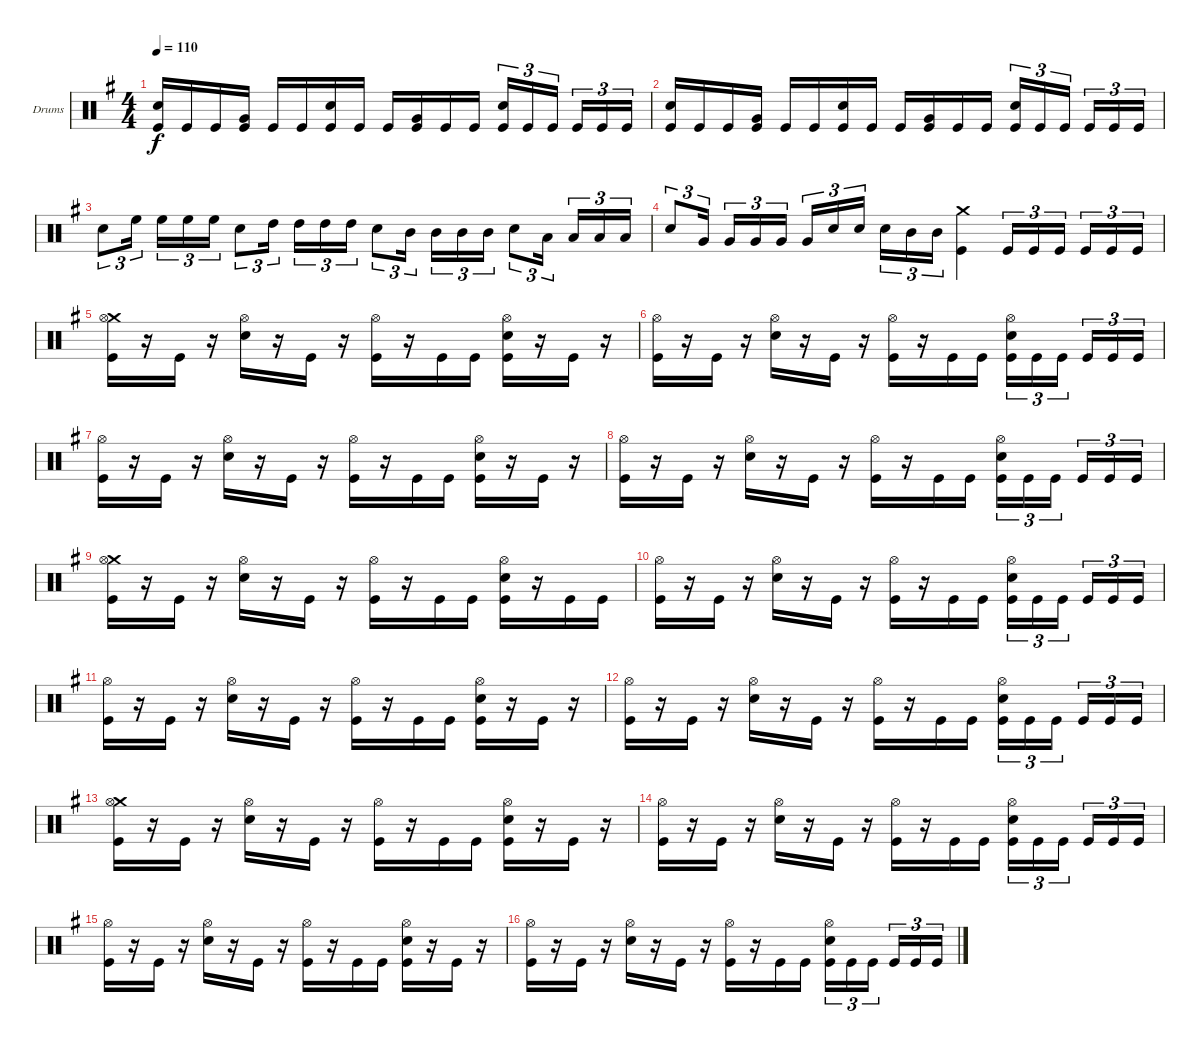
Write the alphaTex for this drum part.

\bracketExtendMode groupsimilarinstruments
\firstSystemTrackNameOrientation horizontal
\otherSystemsTrackNameOrientation horizontal
\track ("Drumkit" "Drums") {instrument percussion}
\staff {score}
\articulation defaults
\ts (4 4)
\tempo 110
\clef neutral
\ks g
("Snare (hit) 2" "Kick (hit)").16{dy f} "Kick (hit)".16 "Kick (hit)".16 ("Very Low Tom (hit)" "Kick (hit)").16 "Kick (hit)".16 "Kick (hit)".16 ("Snare (hit) 2" "Kick (hit)").16 "Kick (hit)".16 "Kick (hit)".16 ("Very Low Tom (hit)" "Kick (hit)").16 "Kick (hit)".16 "Kick (hit)".16 ("Snare (hit) 2" "Kick (hit)").16{tu (3 2)} "Kick (hit)".16{tu (3 2)} "Kick (hit)".16{tu (3 2)} "Kick (hit)".16{tu (3 2)} "Kick (hit)".16{tu (3 2)} "Kick (hit)".16{tu (3 2)} |
("Snare (hit) 2" "Kick (hit)").16 "Kick (hit)".16 "Kick (hit)".16 ("Very Low Tom (hit)" "Kick (hit)").16 "Kick (hit)".16 "Kick (hit)".16 ("Snare (hit) 2" "Kick (hit)").16 "Kick (hit)".16 "Kick (hit)".16 ("Very Low Tom (hit)" "Kick (hit)").16 "Kick (hit)".16 "Kick (hit)".16 ("Snare (hit) 2" "Kick (hit)").16{tu (3 2)} "Kick (hit)".16{tu (3 2)} "Kick (hit)".16{tu (3 2)} "Kick (hit)".16{tu (3 2)} "Kick (hit)".16{tu (3 2)} "Kick (hit)".16{tu (3 2)} |
"Snare (hit) 2".8{tu (3 2)} "High Floor Tom (hit)".16{tu (3 2)} "High Floor Tom (hit)".16{tu (3 2)} "High Floor Tom (hit)".16{tu (3 2)} "High Floor Tom (hit)".16{tu (3 2)} "Snare (hit) 2".8{tu (3 2)} "High Tom (hit)".16{tu (3 2)} "High Tom (hit)".16{tu (3 2)} "High Tom (hit)".16{tu (3 2)} "High Tom (hit)".16{tu (3 2)} "Snare (hit) 2".8{tu (3 2)} "Mid Tom (hit)".16{tu (3 2)} "Mid Tom (hit)".16{tu (3 2)} "Mid Tom (hit)".16{tu (3 2)} "Mid Tom (hit)".16{tu (3 2)} "Snare (hit) 2".8{tu (3 2)} "Low Tom (hit)".16{tu (3 2)} "Low Tom (hit)".16{tu (3 2)} "Low Tom (hit)".16{tu (3 2)} "Low Tom (hit)".16{tu (3 2)} |
"Snare (hit) 2".8{tu (3 2)} "Very Low Tom (hit)".16{tu (3 2)} "Very Low Tom (hit)".16{tu (3 2)} "Very Low Tom (hit)".16{tu (3 2)} "Very Low Tom (hit)".16{tu (3 2)} "Very Low Tom (hit)".16{tu (3 2)} "Snare (hit) 2".16{tu (3 2)} "Snare (hit) 2".16{tu (3 2)} "Snare (hit) 2".16{tu (3 2)} "Mid Tom (hit)".16{tu (3 2)} "Mid Tom (hit)".16{tu (3 2)} ("Crash medium (hit)" "Kick (hit)").4 "Kick (hit)".16{tu (3 2)} "Kick (hit)".16{tu (3 2)} "Kick (hit)".16{tu (3 2)} "Kick (hit)".16{tu (3 2)} "Kick (hit)".16{tu (3 2)} "Kick (hit)".16{tu (3 2)} |
("Crash medium (hit)" "Hi-Hat (open)" "Kick (hit)").16 r.16 "Kick (hit)".16 r.16 ("Hi-Hat (open)" "Snare (hit) 2").16 r.16 "Kick (hit)".16 r.16 ("Hi-Hat (open)" "Kick (hit)").16 r.16 "Kick (hit)".16 "Kick (hit)".16 ("Hi-Hat (open)" "Snare (hit) 2" "Kick (hit)").16 r.16 "Kick (hit)".16 r.16 |
("Hi-Hat (open)" "Kick (hit)").16 r.16 "Kick (hit)".16 r.16 ("Hi-Hat (open)" "Snare (hit) 2").16 r.16 "Kick (hit)".16 r.16 ("Hi-Hat (open)" "Kick (hit)").16 r.16 "Kick (hit)".16 "Kick (hit)".16 ("Hi-Hat (open)" "Snare (hit) 2" "Kick (hit)").16{tu (3 2)} "Kick (hit)".16{tu (3 2)} "Kick (hit)".16{tu (3 2)} "Kick (hit)".16{tu (3 2)} "Kick (hit)".16{tu (3 2)} "Kick (hit)".16{tu (3 2)} |
("Hi-Hat (open)" "Kick (hit)").16 r.16 "Kick (hit)".16 r.16 ("Hi-Hat (open)" "Snare (hit) 2").16 r.16 "Kick (hit)".16 r.16 ("Hi-Hat (open)" "Kick (hit)").16 r.16 "Kick (hit)".16 "Kick (hit)".16 ("Hi-Hat (open)" "Snare (hit) 2" "Kick (hit)").16 r.16 "Kick (hit)".16 r.16 |
("Hi-Hat (open)" "Kick (hit)").16 r.16 "Kick (hit)".16 r.16 ("Hi-Hat (open)" "Snare (hit) 2").16 r.16 "Kick (hit)".16 r.16 ("Hi-Hat (open)" "Kick (hit)").16 r.16 "Kick (hit)".16 "Kick (hit)".16 ("Hi-Hat (open)" "Snare (hit) 2" "Kick (hit)").16{tu (3 2)} "Kick (hit)".16{tu (3 2)} "Kick (hit)".16{tu (3 2)} "Kick (hit)".16{tu (3 2)} "Kick (hit)".16{tu (3 2)} "Kick (hit)".16{tu (3 2)} |
("Crash medium (hit)" "Hi-Hat (open)" "Kick (hit)").16 r.16 "Kick (hit)".16 r.16 ("Hi-Hat (open)" "Snare (hit) 2").16 r.16 "Kick (hit)".16 r.16 ("Hi-Hat (open)" "Kick (hit)").16 r.16 "Kick (hit)".16 "Kick (hit)".16 ("Hi-Hat (open)" "Snare (hit) 2" "Kick (hit)").16 r.16 "Kick (hit)".16 "Kick (hit)".16 |
("Hi-Hat (open)" "Kick (hit)").16 r.16 "Kick (hit)".16 r.16 ("Hi-Hat (open)" "Snare (hit) 2").16 r.16 "Kick (hit)".16 r.16 ("Hi-Hat (open)" "Kick (hit)").16 r.16 "Kick (hit)".16 "Kick (hit)".16 ("Hi-Hat (open)" "Snare (hit) 2" "Kick (hit)").16{tu (3 2)} "Kick (hit)".16{tu (3 2)} "Kick (hit)".16{tu (3 2)} "Kick (hit)".16{tu (3 2)} "Kick (hit)".16{tu (3 2)} "Kick (hit)".16{tu (3 2)} |
("Hi-Hat (open)" "Kick (hit)").16 r.16 "Kick (hit)".16 r.16 ("Hi-Hat (open)" "Snare (hit) 2").16 r.16 "Kick (hit)".16 r.16 ("Hi-Hat (open)" "Kick (hit)").16 r.16 "Kick (hit)".16 "Kick (hit)".16 ("Hi-Hat (open)" "Snare (hit) 2" "Kick (hit)").16 r.16 "Kick (hit)".16 r.16 |
("Hi-Hat (open)" "Kick (hit)").16 r.16 "Kick (hit)".16 r.16 ("Hi-Hat (open)" "Snare (hit) 2").16 r.16 "Kick (hit)".16 r.16 ("Hi-Hat (open)" "Kick (hit)").16 r.16 "Kick (hit)".16 "Kick (hit)".16 ("Hi-Hat (open)" "Snare (hit) 2" "Kick (hit)").16{tu (3 2)} "Kick (hit)".16{tu (3 2)} "Kick (hit)".16{tu (3 2)} "Kick (hit)".16{tu (3 2)} "Kick (hit)".16{tu (3 2)} "Kick (hit)".16{tu (3 2)} |
("Crash medium (hit)" "Hi-Hat (open)" "Kick (hit)").16 r.16 "Kick (hit)".16 r.16 ("Hi-Hat (open)" "Snare (hit) 2").16 r.16 "Kick (hit)".16 r.16 ("Hi-Hat (open)" "Kick (hit)").16 r.16 "Kick (hit)".16 "Kick (hit)".16 ("Hi-Hat (open)" "Snare (hit) 2" "Kick (hit)").16 r.16 "Kick (hit)".16 r.16 |
("Hi-Hat (open)" "Kick (hit)").16 r.16 "Kick (hit)".16 r.16 ("Hi-Hat (open)" "Snare (hit) 2").16 r.16 "Kick (hit)".16 r.16 ("Hi-Hat (open)" "Kick (hit)").16 r.16 "Kick (hit)".16 "Kick (hit)".16 ("Hi-Hat (open)" "Snare (hit) 2" "Kick (hit)").16{tu (3 2)} "Kick (hit)".16{tu (3 2)} "Kick (hit)".16{tu (3 2)} "Kick (hit)".16{tu (3 2)} "Kick (hit)".16{tu (3 2)} "Kick (hit)".16{tu (3 2)} |
("Hi-Hat (open)" "Kick (hit)").16 r.16 "Kick (hit)".16 r.16 ("Hi-Hat (open)" "Snare (hit) 2").16 r.16 "Kick (hit)".16 r.16 ("Hi-Hat (open)" "Kick (hit)").16 r.16 "Kick (hit)".16 "Kick (hit)".16 ("Hi-Hat (open)" "Snare (hit) 2" "Kick (hit)").16 r.16 "Kick (hit)".16 r.16 |
("Hi-Hat (open)" "Kick (hit)").16 r.16 "Kick (hit)".16 r.16 ("Hi-Hat (open)" "Snare (hit) 2").16 r.16 "Kick (hit)".16 r.16 ("Hi-Hat (open)" "Kick (hit)").16 r.16 "Kick (hit)".16 "Kick (hit)".16 ("Hi-Hat (open)" "Snare (hit) 2" "Kick (hit)").16{tu (3 2)} "Kick (hit)".16{tu (3 2)} "Kick (hit)".16{tu (3 2)} "Kick (hit)".16{tu (3 2)} "Kick (hit)".16{tu (3 2)} "Kick (hit)".16{tu (3 2)}
